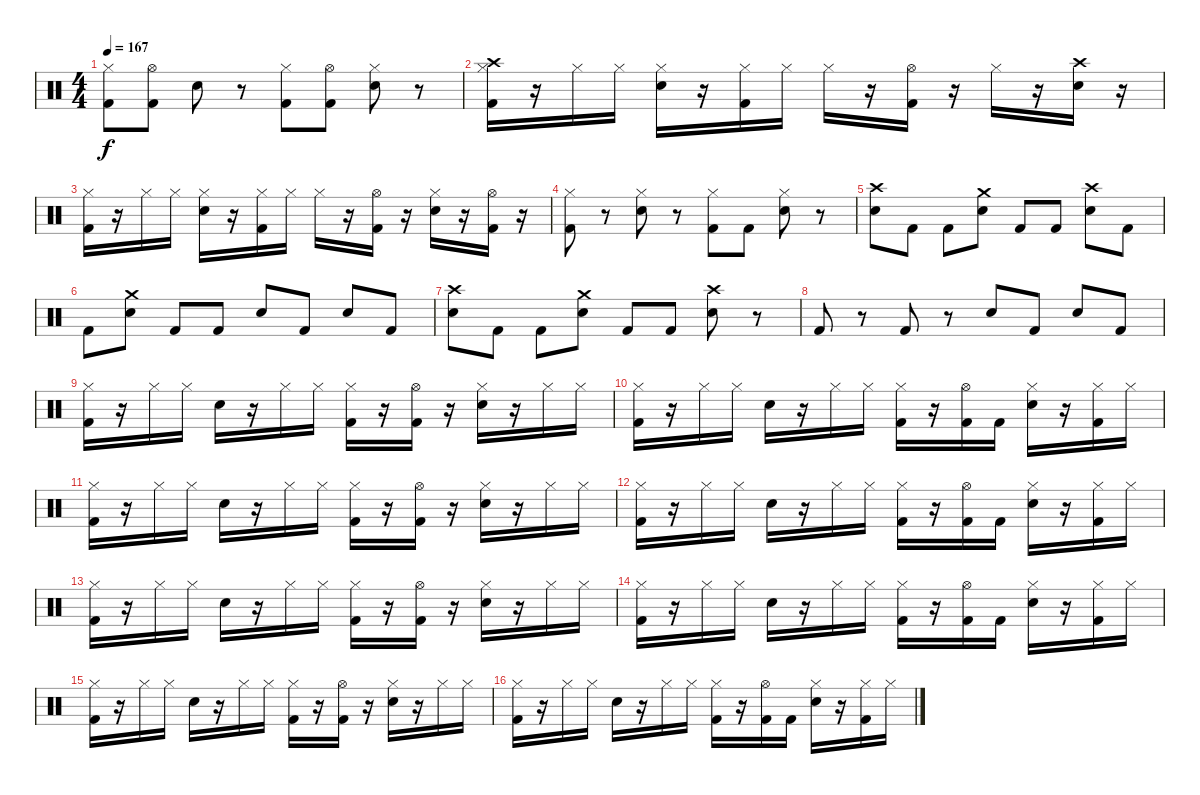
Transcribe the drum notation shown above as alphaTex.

\track "" {instrument percussion}
\staff {score}
\articulation defaults
\ts (4 4)
\tempo 167
\clef neutral
\ks c
("Hi-Hat (closed)" "Kick (hit) 2").8{dy f} ("Hi-Hat (open)" "Kick (hit) 2").8 "Electric Snare (hit)".8 r.8 ("Hi-Hat (closed)" "Kick (hit) 2").8 ("Hi-Hat (open)" "Kick (hit) 2").8 ("Hi-Hat (closed)" "Electric Snare (hit)").8 r.8 |
("Hi-Hat (closed)" "Kick (hit) 2" "Crash high (hit)").16 r.16 "Hi-Hat (closed)".16 "Hi-Hat (closed)".16 ("Hi-Hat (closed)" "Electric Snare (hit)").16 r.16 ("Hi-Hat (closed)" "Kick (hit) 2").16 "Hi-Hat (closed)".16 "Hi-Hat (closed)".16 r.16 ("Hi-Hat (open)" "Kick (hit) 2").16 r.16 "Hi-Hat (closed)".16 r.16 ("Electric Snare (hit)" "Crash high (hit)").16 r.16 |
("Hi-Hat (closed)" "Kick (hit) 2").16 r.16 "Hi-Hat (closed)".16 "Hi-Hat (closed)".16 ("Hi-Hat (closed)" "Electric Snare (hit)").16 r.16 ("Hi-Hat (closed)" "Kick (hit) 2").16 "Hi-Hat (closed)".16 "Hi-Hat (closed)".16 r.16 ("Hi-Hat (open)" "Kick (hit) 2").16 r.16 ("Hi-Hat (closed)" "Electric Snare (hit)").16 r.16 ("Hi-Hat (open)" "Kick (hit) 2").16 r.16 |
("Hi-Hat (closed)" "Kick (hit) 2").8 r.8 ("Hi-Hat (closed)" "Electric Snare (hit)").8 r.8 ("Hi-Hat (closed)" "Kick (hit) 2").8 "Kick (hit) 2".8 ("Hi-Hat (closed)" "Electric Snare (hit)").8 r.8 |
("Crash high (hit)" "Electric Snare (hit)").8 "Kick (hit) 2".8 "Kick (hit) 2".8 ("Crash medium (hit)" "Electric Snare (hit)").8 "Kick (hit) 2".8 "Kick (hit) 2".8 ("Crash high (hit)" "Electric Snare (hit)").8 "Kick (hit) 2".8 |
"Kick (hit) 2".8 ("Crash medium (hit)" "Electric Snare (hit)").8 "Kick (hit) 2".8 "Kick (hit) 2".8 "Electric Snare (hit)".8 "Kick (hit) 2".8 "Electric Snare (hit)".8 "Kick (hit) 2".8 |
("Crash high (hit)" "Electric Snare (hit)").8 "Kick (hit) 2".8 "Kick (hit) 2".8 ("Crash medium (hit)" "Electric Snare (hit)").8 "Kick (hit) 2".8 "Kick (hit) 2".8 ("Crash high (hit)" "Electric Snare (hit)").8 r.8 |
"Kick (hit) 2".8 r.8 "Kick (hit) 2".8 r.8 "Electric Snare (hit)".8 "Kick (hit) 2".8 "Electric Snare (hit)".8 "Kick (hit) 2".8 |
("Hi-Hat (closed)" "Kick (hit) 2").16 r.16 "Hi-Hat (closed)".16 "Hi-Hat (closed)".16 "Electric Snare (hit)".16 r.16 "Hi-Hat (closed)".16 "Hi-Hat (closed)".16 ("Hi-Hat (closed)" "Kick (hit) 2").16 r.16 ("Hi-Hat (open)" "Kick (hit) 2").16 r.16 ("Hi-Hat (closed)" "Electric Snare (hit)").16 r.16 "Hi-Hat (closed)".16 "Hi-Hat (closed)".16 |
("Hi-Hat (closed)" "Kick (hit) 2").16 r.16 "Hi-Hat (closed)".16 "Hi-Hat (closed)".16 "Electric Snare (hit)".16 r.16 "Hi-Hat (closed)".16 "Hi-Hat (closed)".16 ("Hi-Hat (closed)" "Kick (hit) 2").16 r.16 ("Hi-Hat (open)" "Kick (hit) 2").16 "Kick (hit) 2".16 ("Hi-Hat (closed)" "Electric Snare (hit)").16 r.16 ("Hi-Hat (closed)" "Kick (hit) 2").16 "Hi-Hat (closed)".16 |
("Hi-Hat (closed)" "Kick (hit) 2").16 r.16 "Hi-Hat (closed)".16 "Hi-Hat (closed)".16 "Electric Snare (hit)".16 r.16 "Hi-Hat (closed)".16 "Hi-Hat (closed)".16 ("Hi-Hat (closed)" "Kick (hit) 2").16 r.16 ("Hi-Hat (open)" "Kick (hit) 2").16 r.16 ("Hi-Hat (closed)" "Electric Snare (hit)").16 r.16 "Hi-Hat (closed)".16 "Hi-Hat (closed)".16 |
("Hi-Hat (closed)" "Kick (hit) 2").16 r.16 "Hi-Hat (closed)".16 "Hi-Hat (closed)".16 "Electric Snare (hit)".16 r.16 "Hi-Hat (closed)".16 "Hi-Hat (closed)".16 ("Hi-Hat (closed)" "Kick (hit) 2").16 r.16 ("Hi-Hat (open)" "Kick (hit) 2").16 "Kick (hit) 2".16 ("Hi-Hat (closed)" "Electric Snare (hit)").16 r.16 ("Hi-Hat (closed)" "Kick (hit) 2").16 "Hi-Hat (closed)".16 |
("Hi-Hat (closed)" "Kick (hit) 2").16 r.16 "Hi-Hat (closed)".16 "Hi-Hat (closed)".16 "Electric Snare (hit)".16 r.16 "Hi-Hat (closed)".16 "Hi-Hat (closed)".16 ("Hi-Hat (closed)" "Kick (hit) 2").16 r.16 ("Hi-Hat (open)" "Kick (hit) 2").16 r.16 ("Hi-Hat (closed)" "Electric Snare (hit)").16 r.16 "Hi-Hat (closed)".16 "Hi-Hat (closed)".16 |
("Hi-Hat (closed)" "Kick (hit) 2").16 r.16 "Hi-Hat (closed)".16 "Hi-Hat (closed)".16 "Electric Snare (hit)".16 r.16 "Hi-Hat (closed)".16 "Hi-Hat (closed)".16 ("Hi-Hat (closed)" "Kick (hit) 2").16 r.16 ("Hi-Hat (open)" "Kick (hit) 2").16 "Kick (hit) 2".16 ("Hi-Hat (closed)" "Electric Snare (hit)").16 r.16 ("Hi-Hat (closed)" "Kick (hit) 2").16 "Hi-Hat (closed)".16 |
("Hi-Hat (closed)" "Kick (hit) 2").16 r.16 "Hi-Hat (closed)".16 "Hi-Hat (closed)".16 "Electric Snare (hit)".16 r.16 "Hi-Hat (closed)".16 "Hi-Hat (closed)".16 ("Hi-Hat (closed)" "Kick (hit) 2").16 r.16 ("Hi-Hat (open)" "Kick (hit) 2").16 r.16 ("Hi-Hat (closed)" "Electric Snare (hit)").16 r.16 "Hi-Hat (closed)".16 "Hi-Hat (closed)".16 |
("Hi-Hat (closed)" "Kick (hit) 2").16 r.16 "Hi-Hat (closed)".16 "Hi-Hat (closed)".16 "Electric Snare (hit)".16 r.16 "Hi-Hat (closed)".16 "Hi-Hat (closed)".16 ("Hi-Hat (closed)" "Kick (hit) 2").16 r.16 ("Hi-Hat (open)" "Kick (hit) 2").16 "Kick (hit) 2".16 ("Hi-Hat (closed)" "Electric Snare (hit)").16 r.16 ("Hi-Hat (closed)" "Kick (hit) 2").16 "Hi-Hat (closed)".16
